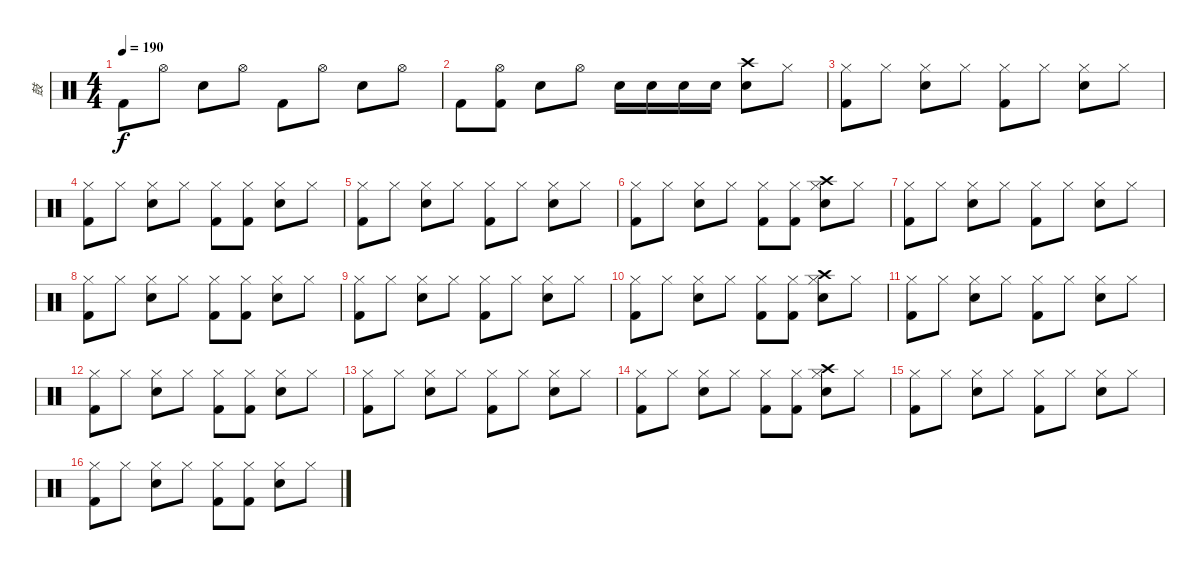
\track ("鼓" "鼓") {instrument percussion}
\staff {score}
\articulation defaults
\ts (4 4)
\tempo 190
\clef neutral
\ks c "Kick (hit) 2".8{dy f} "Hi-Hat (open)".8 "Snare (hit) 2".8 "Hi-Hat (open)".8 "Kick (hit) 2".8 "Hi-Hat (open)".8 "Snare (hit) 2".8 "Hi-Hat (open)".8
|
"Kick (hit) 2".8 ("Hi-Hat (open)" "Kick (hit) 2").8 "Snare (hit) 2".8 "Hi-Hat (open)".8 "Snare (hit) 2".16 "Snare (hit) 2".16 "Snare (hit) 2".16 "Snare (hit) 2".16 ("Crash high (hit)" "Snare (hit) 2").8 "Hi-Hat (closed)".8 |
("Hi-Hat (closed)" "Kick (hit) 2").8 "Hi-Hat (closed)".8 ("Hi-Hat (closed)" "Snare (hit) 2").8 "Hi-Hat (closed)".8 ("Hi-Hat (closed)" "Kick (hit) 2").8 "Hi-Hat (closed)".8 ("Hi-Hat (closed)" "Snare (hit) 2").8 "Hi-Hat (closed)".8 |
("Hi-Hat (closed)" "Kick (hit) 2").8 "Hi-Hat (closed)".8 ("Hi-Hat (closed)" "Snare (hit) 2").8 "Hi-Hat (closed)".8 ("Hi-Hat (closed)" "Kick (hit) 2").8 ("Hi-Hat (closed)" "Kick (hit) 2").8 ("Hi-Hat (closed)" "Snare (hit) 2").8 "Hi-Hat (closed)".8 |
("Hi-Hat (closed)" "Kick (hit) 2").8 "Hi-Hat (closed)".8 ("Hi-Hat (closed)" "Snare (hit) 2").8 "Hi-Hat (closed)".8 ("Hi-Hat (closed)" "Kick (hit) 2").8 "Hi-Hat (closed)".8 ("Hi-Hat (closed)" "Snare (hit) 2").8 "Hi-Hat (closed)".8 |
("Hi-Hat (closed)" "Kick (hit) 2").8 "Hi-Hat (closed)".8 ("Hi-Hat (closed)" "Snare (hit) 2").8 "Hi-Hat (closed)".8 ("Hi-Hat (closed)" "Kick (hit) 2").8 ("Hi-Hat (closed)" "Kick (hit) 2").8 ("Crash high (hit)" "Hi-Hat (closed)" "Snare (hit) 2").8 "Hi-Hat (closed)".8 |
("Hi-Hat (closed)" "Kick (hit) 2").8 "Hi-Hat (closed)".8 ("Hi-Hat (closed)" "Snare (hit) 2").8 "Hi-Hat (closed)".8 ("Hi-Hat (closed)" "Kick (hit) 2").8 "Hi-Hat (closed)".8 ("Hi-Hat (closed)" "Snare (hit) 2").8 "Hi-Hat (closed)".8 |
("Hi-Hat (closed)" "Kick (hit) 2").8 "Hi-Hat (closed)".8 ("Hi-Hat (closed)" "Snare (hit) 2").8 "Hi-Hat (closed)".8 ("Hi-Hat (closed)" "Kick (hit) 2").8 ("Hi-Hat (closed)" "Kick (hit) 2").8 ("Hi-Hat (closed)" "Snare (hit) 2").8 "Hi-Hat (closed)".8 |
("Hi-Hat (closed)" "Kick (hit) 2").8 "Hi-Hat (closed)".8 ("Hi-Hat (closed)" "Snare (hit) 2").8 "Hi-Hat (closed)".8 ("Hi-Hat (closed)" "Kick (hit) 2").8 "Hi-Hat (closed)".8 ("Hi-Hat (closed)" "Snare (hit) 2").8 "Hi-Hat (closed)".8 |
("Hi-Hat (closed)" "Kick (hit) 2").8 "Hi-Hat (closed)".8 ("Hi-Hat (closed)" "Snare (hit) 2").8 "Hi-Hat (closed)".8 ("Hi-Hat (closed)" "Kick (hit) 2").8 ("Hi-Hat (closed)" "Kick (hit) 2").8 ("Crash high (hit)" "Hi-Hat (closed)" "Snare (hit) 2").8 "Hi-Hat (closed)".8 |
("Hi-Hat (closed)" "Kick (hit) 2").8 "Hi-Hat (closed)".8 ("Hi-Hat (closed)" "Snare (hit) 2").8 "Hi-Hat (closed)".8 ("Hi-Hat (closed)" "Kick (hit) 2").8 "Hi-Hat (closed)".8 ("Hi-Hat (closed)" "Snare (hit) 2").8 "Hi-Hat (closed)".8 |
("Hi-Hat (closed)" "Kick (hit) 2").8 "Hi-Hat (closed)".8 ("Hi-Hat (closed)" "Snare (hit) 2").8 "Hi-Hat (closed)".8 ("Hi-Hat (closed)" "Kick (hit) 2").8 ("Hi-Hat (closed)" "Kick (hit) 2").8 ("Hi-Hat (closed)" "Snare (hit) 2").8 "Hi-Hat (closed)".8 |
("Hi-Hat (closed)" "Kick (hit) 2").8 "Hi-Hat (closed)".8 ("Hi-Hat (closed)" "Snare (hit) 2").8 "Hi-Hat (closed)".8 ("Hi-Hat (closed)" "Kick (hit) 2").8 "Hi-Hat (closed)".8 ("Hi-Hat (closed)" "Snare (hit) 2").8 "Hi-Hat (closed)".8 |
("Hi-Hat (closed)" "Kick (hit) 2").8 "Hi-Hat (closed)".8 ("Hi-Hat (closed)" "Snare (hit) 2").8 "Hi-Hat (closed)".8 ("Hi-Hat (closed)" "Kick (hit) 2").8 ("Hi-Hat (closed)" "Kick (hit) 2").8 ("Crash high (hit)" "Hi-Hat (closed)" "Snare (hit) 2").8 "Hi-Hat (closed)".8 |
("Hi-Hat (closed)" "Kick (hit) 2").8 "Hi-Hat (closed)".8 ("Hi-Hat (closed)" "Snare (hit) 2").8 "Hi-Hat (closed)".8 ("Hi-Hat (closed)" "Kick (hit) 2").8 "Hi-Hat (closed)".8 ("Hi-Hat (closed)" "Snare (hit) 2").8 "Hi-Hat (closed)".8 |
("Hi-Hat (closed)" "Kick (hit) 2").8 "Hi-Hat (closed)".8 ("Hi-Hat (closed)" "Snare (hit) 2").8 "Hi-Hat (closed)".8 ("Hi-Hat (closed)" "Kick (hit) 2").8 ("Hi-Hat (closed)" "Kick (hit) 2").8 ("Hi-Hat (closed)" "Snare (hit) 2").8 "Hi-Hat (closed)".8
